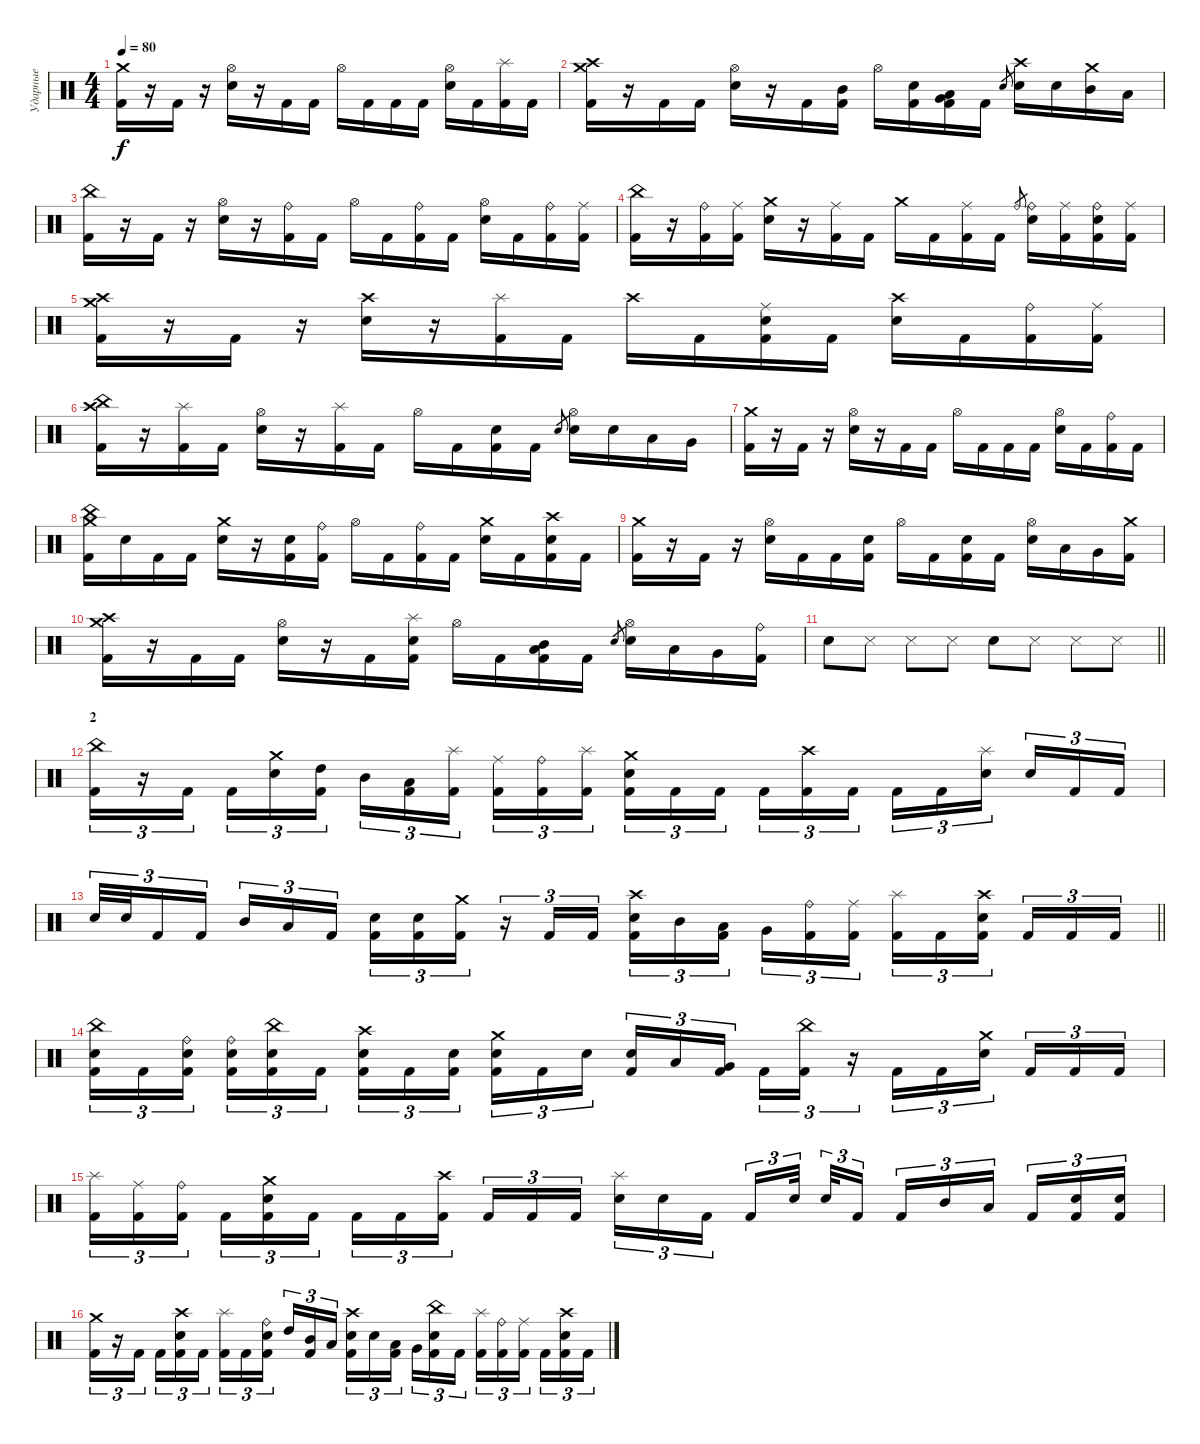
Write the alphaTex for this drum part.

\track ("Ударные" "Ударные") {instrument percussion}
\staff {score}
\articulation defaults
\ts (4 4)
\tempo 80
\clef neutral
\ks c
("Crash medium (hit)" "Kick (hit) 2").16{dy f} r.16 "Kick (hit) 2".16 r.16 ("Hi-Hat (open)" "Electric Snare (hit)").16 r.16 "Kick (hit) 2".16 "Kick (hit) 2".16 "Hi-Hat (open)".16 "Kick (hit) 2".16 "Kick (hit) 2".16 "Kick (hit) 2".16 ("Hi-Hat (open)" "Electric Snare (hit)").16 "Kick (hit) 2".16 ("Splash (hit)" "Kick (hit) 2").16 "Kick (hit) 2".16 |
("Crash high (hit)" "Crash medium (hit)" "Kick (hit) 2").16 r.16 "Kick (hit) 2".16 "Kick (hit) 2".16 ("Hi-Hat (open)" "Electric Snare (hit)").16 r.16 "Kick (hit) 2".16 ("Mid Tom (hit)" "Kick (hit) 2").16 "Hi-Hat (open)".16 ("Electric Snare (hit)" "Kick (hit) 2").16 ("Very Low Tom (hit)" "Low Tom (hit)" "Kick (hit) 2").16 "Kick (hit) 2".16 "Electric Snare (hit)".8{gr} ("Crash high (hit)" "Electric Snare (hit)").16 "Electric Snare (hit)".16 ("Crash medium (hit)" "Mid Tom (hit)").16 "Low Tom (hit)".16 |
("China (hit)" "Kick (hit) 2").16 r.16 "Kick (hit) 2".16 r.16 ("Hi-Hat (open)" "Electric Snare (hit)").16 r.16 ("Ride (bell)" "Kick (hit) 2").16 "Kick (hit) 2".16 "Hi-Hat (open)".16 "Kick (hit) 2".16 ("Ride (bell)" "Kick (hit) 2").16 "Kick (hit) 2".16 ("Hi-Hat (open)" "Electric Snare (hit)").16 "Kick (hit) 2".16 ("Ride (bell)" "Kick (hit) 2").16 ("Ride (middle)" "Kick (hit) 2").16 |
("China (hit)" "Kick (hit) 2").16 r.16 ("Ride (bell)" "Kick (hit) 2").16 ("Ride (middle)" "Kick (hit) 2").16 ("Crash medium (hit)" "Electric Snare (hit)").16 r.16 ("Ride (middle)" "Kick (hit) 2").16 "Kick (hit) 2".16 "Crash medium (hit)".16 "Kick (hit) 2".16 ("Ride (middle)" "Kick (hit) 2").16 "Kick (hit) 2".16 "Ride (bell)".8{gr} ("Ride (bell)" "Electric Snare (hit)").16 ("Ride (middle)" "Kick (hit) 2").16 ("Ride (bell)" "Electric Snare (hit)" "Kick (hit) 2").16 ("Ride (middle)" "Kick (hit) 2").16 |
("Crash high (hit)" "Crash medium (hit)" "Kick (hit) 2").16 r.16 "Kick (hit) 2".16 r.16 ("Crash high (hit)" "Electric Snare (hit)").16 r.16 ("Splash (hit)" "Kick (hit) 2").16 "Kick (hit) 2".16 "Crash high (hit)".16 "Kick (hit) 2".16 ("Ride (middle)" "Electric Snare (hit)" "Kick (hit) 2").16 "Kick (hit) 2".16 ("Crash high (hit)" "Electric Snare (hit)").16 "Kick (hit) 2".16 ("Ride (bell)" "Kick (hit) 2").16 ("Ride (middle)" "Kick (hit) 2").16 |
("Crash high (hit)" "China (hit)" "Kick (hit) 2").16 r.16 ("Splash (hit)" "Kick (hit) 2").16 "Kick (hit) 2".16 ("Hi-Hat (open)" "Electric Snare (hit)").16 r.16 ("Splash (hit)" "Kick (hit) 2").16 "Kick (hit) 2".16 "Hi-Hat (open)".16 "Kick (hit) 2".16 ("Electric Snare (hit)" "Kick (hit) 2").16 "Kick (hit) 2".16 "Electric Snare (hit)".8{gr} ("Hi-Hat (open)" "Electric Snare (hit)").16 "Electric Snare (hit)".16 "Low Tom (hit)".16 "Very Low Tom (hit)".16 |
("Crash medium (hit)" "Kick (hit) 2").16 r.16 "Kick (hit) 2".16 r.16 ("Hi-Hat (open)" "Electric Snare (hit)").16 r.16 "Kick (hit) 2".16 "Kick (hit) 2".16 "Hi-Hat (open)".16 "Kick (hit) 2".16 "Kick (hit) 2".16 "Kick (hit) 2".16 ("Hi-Hat (open)" "Electric Snare (hit)").16 "Kick (hit) 2".16 ("Ride (bell)" "Kick (hit) 2").16 "Kick (hit) 2".16 |
("China (hit)" "Crash medium (hit)" "Kick (hit) 2").16 "Electric Snare (hit)".16 "Kick (hit) 2".16 "Kick (hit) 2".16 ("Crash medium (hit)" "Electric Snare (hit)").16 r.16 ("Electric Snare (hit)" "Kick (hit) 2").16 ("Ride (bell)" "Kick (hit) 2").16 "Hi-Hat (open)".16 "Kick (hit) 2".16 ("Ride (bell)" "Kick (hit) 2").16 "Kick (hit) 2".16 ("Crash medium (hit)" "Electric Snare (hit)").16 "Kick (hit) 2".16 ("Crash high (hit)" "Electric Snare (hit)" "Kick (hit) 2").16 "Kick (hit) 2".16 |
("Crash medium (hit)" "Kick (hit) 2").16 r.16 "Kick (hit) 2".16 r.16 ("Hi-Hat (open)" "Electric Snare (hit)").16 "Kick (hit) 2".16 "Kick (hit) 2".16 ("Electric Snare (hit)" "Kick (hit) 2").16 "Hi-Hat (open)".16 "Kick (hit) 2".16 ("Electric Snare (hit)" "Kick (hit) 2").16 "Kick (hit) 2".16 ("Hi-Hat (open)" "Electric Snare (hit)").16 "Low Tom (hit)".16 "Very Low Tom (hit)".16 ("Crash medium (hit)" "Kick (hit) 2").16 |
("Crash high (hit)" "Crash medium (hit)" "Kick (hit) 2").16 r.16 "Kick (hit) 2".16 "Kick (hit) 2".16 ("Hi-Hat (open)" "Electric Snare (hit)").16 r.16 "Kick (hit) 2".16 ("Splash (hit)" "Electric Snare (hit)" "Kick (hit) 2").16 "Hi-Hat (open)".16 "Kick (hit) 2".16 ("Mid Tom (hit)" "Low Tom (hit)" "Kick (hit) 2").16 "Kick (hit) 2".16 "Electric Snare (hit)".8{gr} ("Hi-Hat (open)" "Electric Snare (hit)").16 "Low Tom (hit)".16 "Very Low Tom (hit)".16 ("Ride (bell)" "Kick (hit) 2").16 |
\barLineRight lightlight "Metronome (bell)".8 "Metronome (hit)".8 "Metronome (hit)".8 "Metronome (hit)".8 "Metronome (bell)".8 "Metronome (hit)".8 "Metronome (hit)".8 "Metronome (hit)".8
|
\section ("" "2")
("China (hit)" "Kick (hit) 2").16{tu (3 2)} r.16{tu (3 2)} "Kick (hit) 2".16{tu (3 2) beam splitsecondary} "Kick (hit) 2".16{tu (3 2)} ("Crash medium (hit)" "Electric Snare (hit)").16{tu (3 2)} ("High Tom (hit)" "Kick (hit) 2").16{tu (3 2)} "Mid Tom (hit)".16{tu (3 2)} ("Low Tom (hit)" "Kick (hit) 2").16{tu (3 2)} ("Splash (hit)" "Kick (hit) 2").16{tu (3 2) beam splitsecondary} ("Ride (middle)" "Kick (hit) 2").16{tu (3 2)} ("Ride (bell)" "Kick (hit) 2").16{tu (3 2)} ("Splash (hit)" "Kick (hit) 2").16{tu (3 2)} ("Crash medium (hit)" "Electric Snare (hit)" "Kick (hit) 2").16{tu (3 2)} "Kick (hit) 2".16{tu (3 2)} "Kick (hit) 2".16{tu (3 2) beam splitsecondary} "Kick (hit) 2".16{tu (3 2)} ("Crash high (hit)" "Kick (hit) 2").16{tu (3 2)} "Kick (hit) 2".16{tu (3 2)} "Kick (hit) 2".16{tu (3 2)} "Kick (hit) 2".16{tu (3 2)} ("Splash (hit)" "Electric Snare (hit)").16{tu (3 2) beam splitsecondary} "Electric Snare (hit)".16{tu (3 2)} "Kick (hit) 2".16{tu (3 2)} "Kick (hit) 2".16{tu (3 2)} |
\barLineRight lightlight "Electric Snare (hit)".32{tu (3 2)} "Electric Snare (hit)".32{tu (3 2)} "Kick (hit) 2".16{tu (3 2)} "Kick (hit) 2".16{tu (3 2) beam splitsecondary} "Mid Tom (hit)".16{tu (3 2)} "Low Tom (hit)".16{tu (3 2)} "Kick (hit) 2".16{tu (3 2)}
("Electric Snare (hit)" "Kick (hit) 2").16{tu (3 2)} ("Electric Snare (hit)" "Kick (hit) 2").16{tu (3 2)} ("Crash medium (hit)" "Kick (hit) 2").16{tu (3 2)} r.16{tu (3 2)} "Kick (hit) 2".16{tu (3 2)} "Kick (hit) 2".16{tu (3 2)} ("Crash high (hit)" "Electric Snare (hit)" "Kick (hit) 2").16{tu (3 2)} "Mid Tom (hit)".16{tu (3 2)} ("Low Tom (hit)" "Kick (hit) 2").16{tu (3 2) beam splitsecondary} "Very Low Tom (hit)".16{tu (3 2)} ("Ride (bell)" "Kick (hit) 2").16{tu (3 2)} ("Ride (middle)" "Kick (hit) 2").16{tu (3 2)} ("Splash (hit)" "Kick (hit) 2").16{tu (3 2)} "Kick (hit) 2".16{tu (3 2)} ("Crash high (hit)" "Electric Snare (hit)" "Kick (hit) 2").16{tu (3 2) beam splitsecondary} "Kick (hit) 2".16{tu (3 2)} "Kick (hit) 2".16{tu (3 2)} "Kick (hit) 2".16{tu (3 2)} |
("China (hit)" "Electric Snare (hit)" "Kick (hit) 2").16{tu (3 2)} "Kick (hit) 2".16{tu (3 2)} ("Ride (bell)" "Electric Snare (hit)" "Kick (hit) 2").16{tu (3 2) beam splitsecondary} ("Ride (bell)" "Electric Snare (hit)" "Kick (hit) 2").16{tu (3 2)} ("China (hit)" "Electric Snare (hit)" "Kick (hit) 2").16{tu (3 2)} "Kick (hit) 2".16{tu (3 2)} ("Crash high (hit)" "Electric Snare (hit)" "Kick (hit) 2").16{tu (3 2)} "Kick (hit) 2".16{tu (3 2)} ("Electric Snare (hit)" "Kick (hit) 2").16{tu (3 2) beam splitsecondary} ("Crash medium (hit)" "Electric Snare (hit)" "Kick (hit) 2").16{tu (3 2)} "Kick (hit) 2".16{tu (3 2)} "Electric Snare (hit)".16{tu (3 2)} ("Electric Snare (hit)" "Kick (hit) 2").16{tu (3 2)} "Low Tom (hit)".16{tu (3 2)} ("Very Low Tom (hit)" "Kick (hit) 2").16{tu (3 2) beam splitsecondary} "Kick (hit) 2".16{tu (3 2)} ("China (hit)" "Kick (hit) 2").16{tu (3 2)} r.16{tu (3 2)} "Kick (hit) 2".16{tu (3 2)} "Kick (hit) 2".16{tu (3 2)} ("Crash medium (hit)" "Electric Snare (hit)").16{tu (3 2) beam splitsecondary} "Kick (hit) 2".16{tu (3 2)} "Kick (hit) 2".16{tu (3 2)} "Kick (hit) 2".16{tu (3 2)} |
("Splash (hit)" "Kick (hit) 2").16{tu (3 2)} ("Ride (middle)" "Kick (hit) 2").16{tu (3 2)} ("Ride (bell)" "Kick (hit) 2").16{tu (3 2) beam splitsecondary} "Kick (hit) 2".16{tu (3 2)} ("Crash medium (hit)" "Electric Snare (hit)" "Kick (hit) 2").16{tu (3 2)} "Kick (hit) 2".16{tu (3 2)} "Kick (hit) 2".16{tu (3 2)} "Kick (hit) 2".16{tu (3 2)} ("Crash high (hit)" "Kick (hit) 2").16{tu (3 2) beam splitsecondary} "Kick (hit) 2".16{tu (3 2)} "Kick (hit) 2".16{tu (3 2)} "Kick (hit) 2".16{tu (3 2)} ("Splash (hit)" "Electric Snare (hit)").16{tu (3 2)} "Electric Snare (hit)".16{tu (3 2)} "Kick (hit) 2".16{tu (3 2) beam splitsecondary} "Kick (hit) 2".16{tu (3 2)} "Electric Snare (hit)".32{tu (3 2) beam splitsecondary} "Electric Snare (hit)".32{tu (3 2)} "Kick (hit) 2".16{tu (3 2)} "Kick (hit) 2".16{tu (3 2)} "Mid Tom (hit)".16{tu (3 2)} "Low Tom (hit)".16{tu (3 2) beam splitsecondary} "Kick (hit) 2".16{tu (3 2)} ("Electric Snare (hit)" "Kick (hit) 2").16{tu (3 2)} ("Electric Snare (hit)" "Kick (hit) 2").16{tu (3 2)} |
("Crash medium (hit)" "Kick (hit) 2").16{tu (3 2)} r.16{tu (3 2)} "Kick (hit) 2".16{tu (3 2) beam splitsecondary} "Kick (hit) 2".16{tu (3 2)} ("Crash high (hit)" "Electric Snare (hit)" "Kick (hit) 2").16{tu (3 2)} "Kick (hit) 2".16{tu (3 2)} ("Splash (hit)" "Kick (hit) 2").16{tu (3 2)} "Kick (hit) 2".16{tu (3 2)} ("Ride (bell)" "Electric Snare (hit)" "Kick (hit) 2").16{tu (3 2) beam splitsecondary} "High Tom (hit)".16{tu (3 2)} ("Mid Tom (hit)" "Kick (hit) 2").16{tu (3 2)} "Low Tom (hit)".16{tu (3 2)} ("Crash high (hit)" "Electric Snare (hit)" "Kick (hit) 2").16{tu (3 2)} "Electric Snare (hit)".16{tu (3 2)} ("Low Tom (hit)" "Kick (hit) 2").16{tu (3 2) beam splitsecondary} "Very Low Tom (hit)".16{tu (3 2)} ("China (hit)" "Electric Snare (hit)" "Kick (hit) 2").16{tu (3 2)} "Kick (hit) 2".16{tu (3 2)} ("Splash (hit)" "Kick (hit) 2").16{tu (3 2)} ("Ride (bell)" "Kick (hit) 2").16{tu (3 2)} ("Ride (middle)" "Kick (hit) 2").16{tu (3 2) beam splitsecondary} "Kick (hit) 2".16{tu (3 2)} ("Crash high (hit)" "Electric Snare (hit)" "Kick (hit) 2").16{tu (3 2)} "Kick (hit) 2".16{tu (3 2)}
